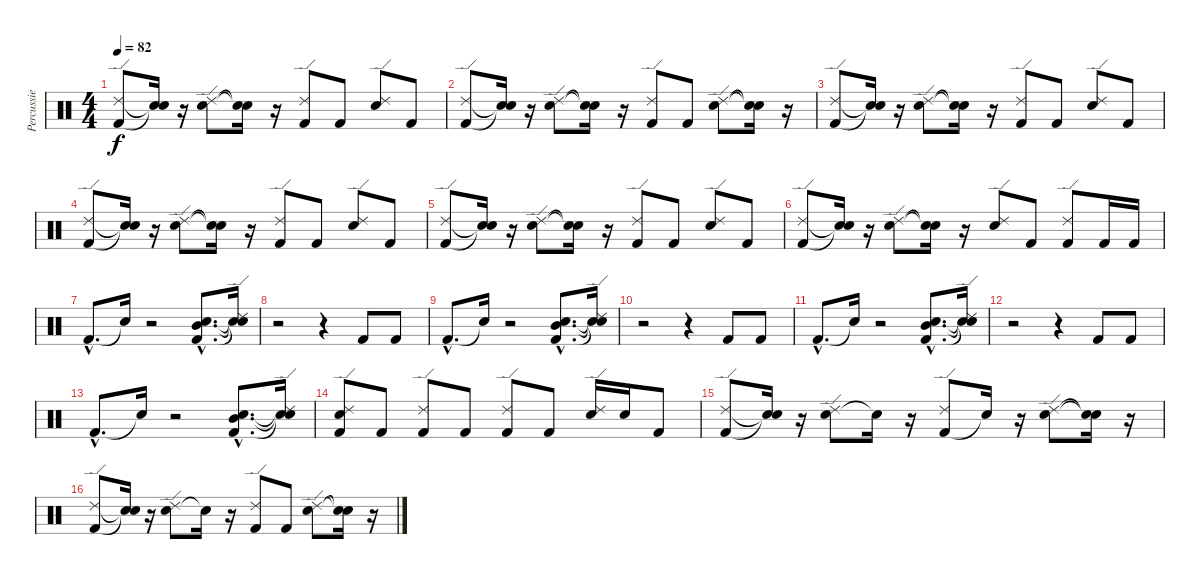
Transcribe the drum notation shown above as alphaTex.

\track ("Percussie" "Percussie") {instrument percussion}
\staff {score}
\articulation defaults
\ts (4 4)
\tempo 82
\clef neutral
\ks c
("Kick (hit) 2" "Ride (edge) 2").8{dy f} ("Snare (hit)"{t} "Snare (hit)"{t}).16 r.16 ("Snare (hit) 2" "Ride (edge) 2").8 ("Snare (hit)"{t} "Snare (hit)"{t}).16 r.16 ("Kick (hit) 2" "Ride (edge) 2").8 "Kick (hit) 2".8 ("Snare (hit) 2" "Ride (edge) 2").8 "Kick (hit) 2".8 |
("Kick (hit) 2" "Ride (edge) 2").8 ("Snare (hit)"{t} "Snare (hit)"{t}).16 r.16 ("Snare (hit) 2" "Ride (edge) 2").8 ("Snare (hit)"{t} "Snare (hit)"{t}).16 r.16 ("Kick (hit) 2" "Ride (edge) 2").8 "Kick (hit) 2".8 ("Snare (hit) 2" "Ride (edge) 2").8 ("Snare (hit)"{t} "Snare (hit)"{t}).16 r.16 |
("Kick (hit) 2" "Ride (edge) 2").8 ("Snare (hit)"{t} "Snare (hit)"{t}).16 r.16 ("Snare (hit) 2" "Ride (edge) 2").8 ("Snare (hit)"{t} "Snare (hit)"{t}).16 r.16 ("Kick (hit) 2" "Ride (edge) 2").8 "Kick (hit) 2".8 ("Snare (hit) 2" "Ride (edge) 2").8 "Kick (hit) 2".8 |
("Kick (hit) 2" "Ride (edge) 2").8 ("Snare (hit)"{t} "Snare (hit)"{t}).16 r.16 ("Snare (hit) 2" "Ride (edge) 2").8 ("Snare (hit)"{t} "Snare (hit)"{t}).16 r.16 ("Kick (hit) 2" "Ride (edge) 2").8 "Kick (hit) 2".8 ("Snare (hit) 2" "Ride (edge) 2").8 "Kick (hit) 2".8 |
("Kick (hit) 2" "Ride (edge) 2").8 ("Snare (hit)"{t} "Snare (hit)"{t}).16 r.16 ("Snare (hit) 2" "Ride (edge) 2").8 ("Snare (hit)"{t} "Snare (hit)"{t}).16 r.16 ("Kick (hit) 2" "Ride (edge) 2").8 "Kick (hit) 2".8 ("Snare (hit) 2" "Ride (edge) 2").8 "Kick (hit) 2".8 |
("Kick (hit) 2" "Ride (edge) 2").8 ("Snare (hit)"{t} "Snare (hit)"{t}).16 r.16 ("Snare (hit) 2" "Ride (edge) 2").8 ("Snare (hit)"{t} "Snare (hit)"{t}).16 r.16 ("Snare (hit) 2" "Ride (edge) 2").8 "Kick (hit) 2".8 ("Kick (hit) 2" "Ride (edge) 2").8 "Kick (hit) 2".16 "Kick (hit) 2".16 |
"Kick (hit) 2"{hac}.8{d} "Snare (hit)"{t}.16 r.2 ("Kick (hit) 2"{hac} "Electric Snare (hit)"{hac} "Mid Tom (hit)"{hac}).8{d} ("Snare (hit) 2"{t} "Ride (edge) 2"{t} "Snare (hit)"{t}).16 |
r.2 r.4 "Kick (hit) 2".8 "Kick (hit) 2".8 |
"Kick (hit) 2"{hac}.8{d} "Snare (hit)"{t}.16 r.2 ("Kick (hit) 2"{hac} "Electric Snare (hit)"{hac} "Mid Tom (hit)"{hac}).8{d} ("Snare (hit) 2"{t} "Ride (edge) 2"{t} "Snare (hit)"{t}).16 |
r.2 r.4 "Kick (hit) 2".8 "Kick (hit) 2".8 |
"Kick (hit) 2"{hac}.8{d} "Snare (hit)"{t}.16 r.2 ("Kick (hit) 2"{hac} "Electric Snare (hit)"{hac} "Mid Tom (hit)"{hac}).8{d} ("Snare (hit) 2"{t} "Ride (edge) 2"{t} "Snare (hit)"{t}).16 |
r.2 r.4 "Kick (hit) 2".8 "Kick (hit) 2".8 |
"Kick (hit) 2"{hac}.8{d} "Snare (hit)"{t}.16 r.2 ("Kick (hit) 2"{hac} "Electric Snare (hit)"{hac} "Mid Tom (hit)"{hac}).8{d} ("Snare (hit) 2"{t} "Ride (edge) 2"{t} "Snare (hit)"{t}).16 |
("Kick (hit) 2" "Snare (hit) 2" "Ride (edge) 2").8 "Kick (hit) 2".8 ("Kick (hit) 2" "Ride (edge) 2").8 "Kick (hit) 2".8 ("Kick (hit) 2" "Ride (edge) 2").8 "Kick (hit) 2".8 ("Snare (hit) 2" "Ride (edge) 2").16 "Snare (hit) 2".16 "Kick (hit) 2".8 |
("Kick (hit) 2" "Ride (edge) 2").8 ("Snare (hit)"{t} "Snare (hit)"{t}).16 r.16 ("Snare (hit) 2" "Ride (edge) 2").8 "Snare (hit)"{t}.16 r.16 ("Kick (hit) 2" "Ride (edge) 2").8 "Snare (hit)"{t}.16 r.16 ("Snare (hit) 2" "Ride (edge) 2").8 ("Snare (hit)"{t} "Snare (hit)"{t}).16 r.16 |
("Kick (hit) 2" "Ride (edge) 2").8 ("Snare (hit)"{t} "Snare (hit)"{t}).16 r.16 ("Snare (hit) 2" "Ride (edge) 2").8 "Snare (hit)"{t}.16 r.16 ("Kick (hit) 2" "Ride (edge) 2").8 "Kick (hit) 2".8 ("Snare (hit) 2" "Ride (edge) 2").8 ("Snare (hit)"{t} "Snare (hit)"{t}).16 r.16
